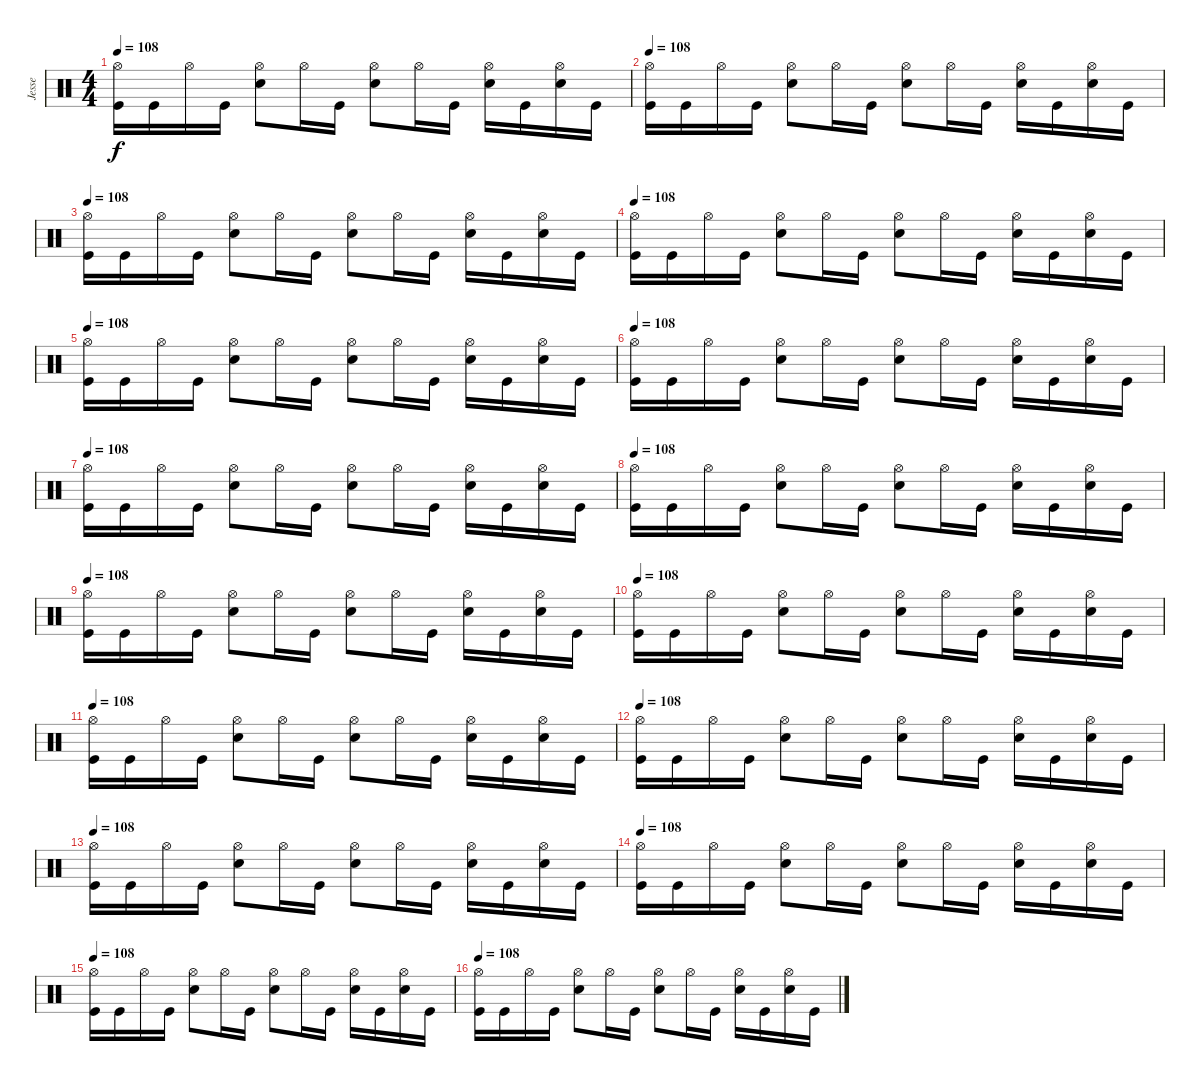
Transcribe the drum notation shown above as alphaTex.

\track ("Jesse" "Jesse") {instrument percussion}
\staff {score}
\articulation defaults
\ts (4 4)
\tempo 108
\clef neutral
\ks c
("Hi-Hat (open)" "Kick (hit)").16{dy f} "Kick (hit)".16 "Hi-Hat (open)".16 "Kick (hit)".16 ("Hi-Hat (open)" "Snare (hit) 2").8 "Hi-Hat (open)".16 "Kick (hit)".16 ("Hi-Hat (open)" "Snare (hit) 2").8 "Hi-Hat (open)".16 "Kick (hit)".16 ("Hi-Hat (open)" "Snare (hit) 2").16 "Kick (hit)".16 ("Hi-Hat (open)" "Snare (hit) 2").16 "Kick (hit)".16 |
\tempo 108
("Hi-Hat (open)" "Kick (hit)").16 "Kick (hit)".16 "Hi-Hat (open)".16 "Kick (hit)".16 ("Hi-Hat (open)" "Snare (hit) 2").8 "Hi-Hat (open)".16 "Kick (hit)".16 ("Hi-Hat (open)" "Snare (hit) 2").8 "Hi-Hat (open)".16 "Kick (hit)".16 ("Hi-Hat (open)" "Snare (hit) 2").16 "Kick (hit)".16 ("Hi-Hat (open)" "Snare (hit) 2").16 "Kick (hit)".16 |
\tempo 108
("Hi-Hat (open)" "Kick (hit)").16 "Kick (hit)".16 "Hi-Hat (open)".16 "Kick (hit)".16 ("Hi-Hat (open)" "Snare (hit) 2").8 "Hi-Hat (open)".16 "Kick (hit)".16 ("Hi-Hat (open)" "Snare (hit) 2").8 "Hi-Hat (open)".16 "Kick (hit)".16 ("Hi-Hat (open)" "Snare (hit) 2").16 "Kick (hit)".16 ("Hi-Hat (open)" "Snare (hit) 2").16 "Kick (hit)".16 |
\tempo 108
("Hi-Hat (open)" "Kick (hit)").16 "Kick (hit)".16 "Hi-Hat (open)".16 "Kick (hit)".16 ("Hi-Hat (open)" "Snare (hit) 2").8 "Hi-Hat (open)".16 "Kick (hit)".16 ("Hi-Hat (open)" "Snare (hit) 2").8 "Hi-Hat (open)".16 "Kick (hit)".16 ("Hi-Hat (open)" "Snare (hit) 2").16 "Kick (hit)".16 ("Hi-Hat (open)" "Snare (hit) 2").16 "Kick (hit)".16 |
\tempo 108
("Hi-Hat (open)" "Kick (hit)").16 "Kick (hit)".16 "Hi-Hat (open)".16 "Kick (hit)".16 ("Hi-Hat (open)" "Snare (hit) 2").8 "Hi-Hat (open)".16 "Kick (hit)".16 ("Hi-Hat (open)" "Snare (hit) 2").8 "Hi-Hat (open)".16 "Kick (hit)".16 ("Hi-Hat (open)" "Snare (hit) 2").16 "Kick (hit)".16 ("Hi-Hat (open)" "Snare (hit) 2").16 "Kick (hit)".16 |
\tempo 108
("Hi-Hat (open)" "Kick (hit)").16 "Kick (hit)".16 "Hi-Hat (open)".16 "Kick (hit)".16 ("Hi-Hat (open)" "Snare (hit) 2").8 "Hi-Hat (open)".16 "Kick (hit)".16 ("Hi-Hat (open)" "Snare (hit) 2").8 "Hi-Hat (open)".16 "Kick (hit)".16 ("Hi-Hat (open)" "Snare (hit) 2").16 "Kick (hit)".16 ("Hi-Hat (open)" "Snare (hit) 2").16 "Kick (hit)".16 |
\tempo 108
("Hi-Hat (open)" "Kick (hit)").16 "Kick (hit)".16 "Hi-Hat (open)".16 "Kick (hit)".16 ("Hi-Hat (open)" "Snare (hit) 2").8 "Hi-Hat (open)".16 "Kick (hit)".16 ("Hi-Hat (open)" "Snare (hit) 2").8 "Hi-Hat (open)".16 "Kick (hit)".16 ("Hi-Hat (open)" "Snare (hit) 2").16 "Kick (hit)".16 ("Hi-Hat (open)" "Snare (hit) 2").16 "Kick (hit)".16 |
\tempo 108
("Hi-Hat (open)" "Kick (hit)").16 "Kick (hit)".16 "Hi-Hat (open)".16 "Kick (hit)".16 ("Hi-Hat (open)" "Snare (hit) 2").8 "Hi-Hat (open)".16 "Kick (hit)".16 ("Hi-Hat (open)" "Snare (hit) 2").8 "Hi-Hat (open)".16 "Kick (hit)".16 ("Hi-Hat (open)" "Snare (hit) 2").16 "Kick (hit)".16 ("Hi-Hat (open)" "Snare (hit) 2").16 "Kick (hit)".16 |
\tempo 108
("Hi-Hat (open)" "Kick (hit)").16 "Kick (hit)".16 "Hi-Hat (open)".16 "Kick (hit)".16 ("Hi-Hat (open)" "Snare (hit) 2").8 "Hi-Hat (open)".16 "Kick (hit)".16 ("Hi-Hat (open)" "Snare (hit) 2").8 "Hi-Hat (open)".16 "Kick (hit)".16 ("Hi-Hat (open)" "Snare (hit) 2").16 "Kick (hit)".16 ("Hi-Hat (open)" "Snare (hit) 2").16 "Kick (hit)".16 |
\tempo 108
("Hi-Hat (open)" "Kick (hit)").16 "Kick (hit)".16 "Hi-Hat (open)".16 "Kick (hit)".16 ("Hi-Hat (open)" "Snare (hit) 2").8 "Hi-Hat (open)".16 "Kick (hit)".16 ("Hi-Hat (open)" "Snare (hit) 2").8 "Hi-Hat (open)".16 "Kick (hit)".16 ("Hi-Hat (open)" "Snare (hit) 2").16 "Kick (hit)".16 ("Hi-Hat (open)" "Snare (hit) 2").16 "Kick (hit)".16 |
\tempo 108
("Hi-Hat (open)" "Kick (hit)").16 "Kick (hit)".16 "Hi-Hat (open)".16 "Kick (hit)".16 ("Hi-Hat (open)" "Snare (hit) 2").8 "Hi-Hat (open)".16 "Kick (hit)".16 ("Hi-Hat (open)" "Snare (hit) 2").8 "Hi-Hat (open)".16 "Kick (hit)".16 ("Hi-Hat (open)" "Snare (hit) 2").16 "Kick (hit)".16 ("Hi-Hat (open)" "Snare (hit) 2").16 "Kick (hit)".16 |
\tempo 108
("Hi-Hat (open)" "Kick (hit)").16 "Kick (hit)".16 "Hi-Hat (open)".16 "Kick (hit)".16 ("Hi-Hat (open)" "Snare (hit) 2").8 "Hi-Hat (open)".16 "Kick (hit)".16 ("Hi-Hat (open)" "Snare (hit) 2").8 "Hi-Hat (open)".16 "Kick (hit)".16 ("Hi-Hat (open)" "Snare (hit) 2").16 "Kick (hit)".16 ("Hi-Hat (open)" "Snare (hit) 2").16 "Kick (hit)".16 |
\tempo 108
("Hi-Hat (open)" "Kick (hit)").16 "Kick (hit)".16 "Hi-Hat (open)".16 "Kick (hit)".16 ("Hi-Hat (open)" "Snare (hit) 2").8 "Hi-Hat (open)".16 "Kick (hit)".16 ("Hi-Hat (open)" "Snare (hit) 2").8 "Hi-Hat (open)".16 "Kick (hit)".16 ("Hi-Hat (open)" "Snare (hit) 2").16 "Kick (hit)".16 ("Hi-Hat (open)" "Snare (hit) 2").16 "Kick (hit)".16 |
\tempo 108
("Hi-Hat (open)" "Kick (hit)").16 "Kick (hit)".16 "Hi-Hat (open)".16 "Kick (hit)".16 ("Hi-Hat (open)" "Snare (hit) 2").8 "Hi-Hat (open)".16 "Kick (hit)".16 ("Hi-Hat (open)" "Snare (hit) 2").8 "Hi-Hat (open)".16 "Kick (hit)".16 ("Hi-Hat (open)" "Snare (hit) 2").16 "Kick (hit)".16 ("Hi-Hat (open)" "Snare (hit) 2").16 "Kick (hit)".16 |
\tempo 108
("Hi-Hat (open)" "Kick (hit)").16 "Kick (hit)".16 "Hi-Hat (open)".16 "Kick (hit)".16 ("Hi-Hat (open)" "Snare (hit) 2").8 "Hi-Hat (open)".16 "Kick (hit)".16 ("Hi-Hat (open)" "Snare (hit) 2").8 "Hi-Hat (open)".16 "Kick (hit)".16 ("Hi-Hat (open)" "Snare (hit) 2").16 "Kick (hit)".16 ("Hi-Hat (open)" "Snare (hit) 2").16 "Kick (hit)".16 |
\tempo 108
("Hi-Hat (open)" "Kick (hit)").16 "Kick (hit)".16 "Hi-Hat (open)".16 "Kick (hit)".16 ("Hi-Hat (open)" "Snare (hit) 2").8 "Hi-Hat (open)".16 "Kick (hit)".16 ("Hi-Hat (open)" "Snare (hit) 2").8 "Hi-Hat (open)".16 "Kick (hit)".16 ("Hi-Hat (open)" "Snare (hit) 2").16 "Kick (hit)".16 ("Hi-Hat (open)" "Snare (hit) 2").16 "Kick (hit)".16
